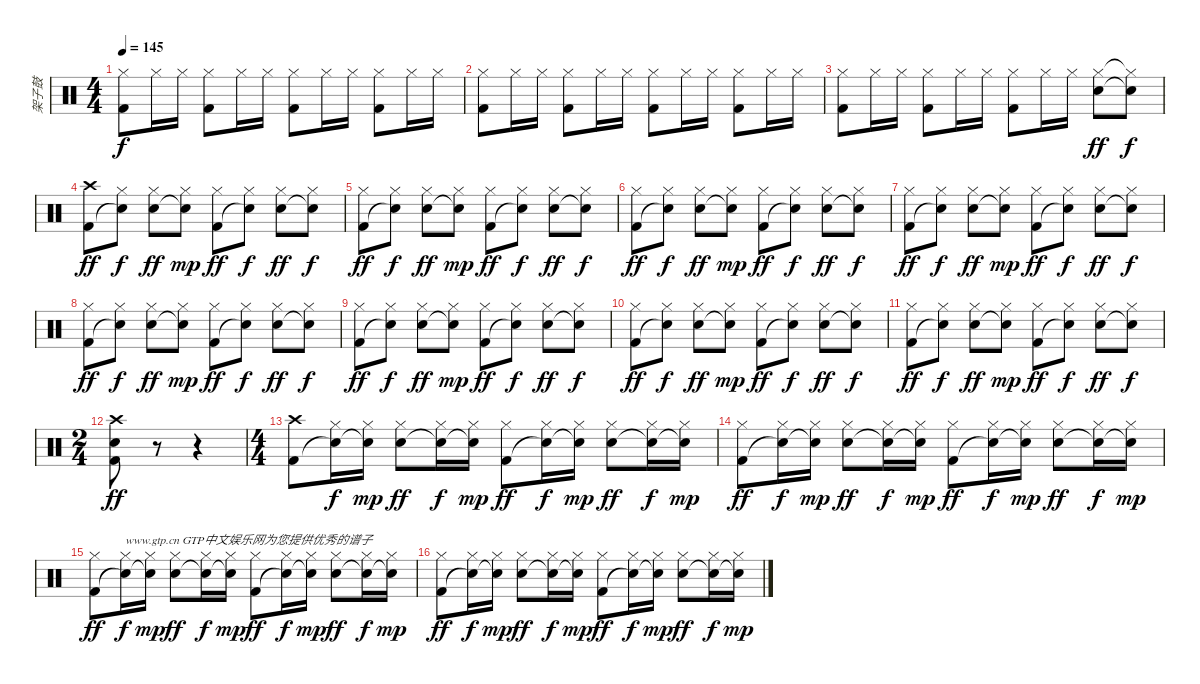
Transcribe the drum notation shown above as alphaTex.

\track ("架子鼓" "架子鼓") {instrument percussion}
\staff {score}
\articulation defaults
\ts (4 4)
\tempo 145
\clef neutral
\ks c
("Kick (hit) 2" "Hi-Hat (closed)").8{dy f} "Hi-Hat (closed)".16 "Hi-Hat (closed)".16 ("Kick (hit) 2" "Hi-Hat (closed)").8 "Hi-Hat (closed)".16 "Hi-Hat (closed)".16 ("Kick (hit) 2" "Hi-Hat (closed)").8 "Hi-Hat (closed)".16 "Hi-Hat (closed)".16 ("Kick (hit) 2" "Hi-Hat (closed)").8 "Hi-Hat (closed)".16 "Hi-Hat (closed)".16 |
("Kick (hit) 2" "Hi-Hat (closed)").8 "Hi-Hat (closed)".16 "Hi-Hat (closed)".16 ("Kick (hit) 2" "Hi-Hat (closed)").8 "Hi-Hat (closed)".16 "Hi-Hat (closed)".16 ("Kick (hit) 2" "Hi-Hat (closed)").8 "Hi-Hat (closed)".16 "Hi-Hat (closed)".16 ("Kick (hit) 2" "Hi-Hat (closed)").8 "Hi-Hat (closed)".16 "Hi-Hat (closed)".16 |
("Kick (hit) 2" "Hi-Hat (closed)").8 "Hi-Hat (closed)".16 "Hi-Hat (closed)".16 ("Kick (hit) 2" "Hi-Hat (closed)").8 "Hi-Hat (closed)".16 "Hi-Hat (closed)".16 ("Kick (hit) 2" "Hi-Hat (closed)").8 "Hi-Hat (closed)".16 "Hi-Hat (closed)".16 ("Hi-Hat (closed)" "Snare (hit) 2").8{dy ff} ("Hi-Hat (closed)"{t} "Snare (hit)"{t}).8{dy f} |
("Kick (hit) 2" "Crash high (hit)").8{dy ff} ("Snare (hit)"{t} "Hi-Hat (closed)").8{dy f} ("Snare (hit) 2" "Hi-Hat (closed)").8{dy ff} ("Snare (hit)"{t} "Hi-Hat (closed)").8{dy mp} ("Kick (hit) 2" "Hi-Hat (closed)").8{dy ff} ("Snare (hit)"{t} "Hi-Hat (closed)").8{dy f} ("Snare (hit) 2" "Hi-Hat (closed)").8{dy ff} ("Snare (hit)"{t} "Hi-Hat (closed)").8{dy f} |
("Kick (hit) 2" "Hi-Hat (closed)").8{dy ff} ("Snare (hit)"{t} "Hi-Hat (closed)").8{dy f} ("Snare (hit) 2" "Hi-Hat (closed)").8{dy ff} ("Snare (hit)"{t} "Hi-Hat (closed)").8{dy mp} ("Kick (hit) 2" "Hi-Hat (closed)").8{dy ff} ("Snare (hit)"{t} "Hi-Hat (closed)").8{dy f} ("Snare (hit) 2" "Hi-Hat (closed)").8{dy ff} ("Snare (hit)"{t} "Hi-Hat (closed)").8{dy f} |
("Kick (hit) 2" "Hi-Hat (closed)").8{dy ff} ("Snare (hit)"{t} "Hi-Hat (closed)").8{dy f} ("Snare (hit) 2" "Hi-Hat (closed)").8{dy ff} ("Snare (hit)"{t} "Hi-Hat (closed)").8{dy mp} ("Kick (hit) 2" "Hi-Hat (closed)").8{dy ff} ("Snare (hit)"{t} "Hi-Hat (closed)").8{dy f} ("Snare (hit) 2" "Hi-Hat (closed)").8{dy ff} ("Snare (hit)"{t} "Hi-Hat (closed)").8{dy f} |
("Kick (hit) 2" "Hi-Hat (closed)").8{dy ff} ("Snare (hit)"{t} "Hi-Hat (closed)").8{dy f} ("Snare (hit) 2" "Hi-Hat (closed)").8{dy ff} ("Snare (hit)"{t} "Hi-Hat (closed)").8{dy mp} ("Kick (hit) 2" "Hi-Hat (closed)").8{dy ff} ("Snare (hit)"{t} "Hi-Hat (closed)").8{dy f} ("Snare (hit) 2" "Hi-Hat (closed)").8{dy ff} ("Snare (hit)"{t} "Hi-Hat (closed)").8{dy f} |
("Kick (hit) 2" "Hi-Hat (closed)").8{dy ff} ("Snare (hit)"{t} "Hi-Hat (closed)").8{dy f} ("Snare (hit) 2" "Hi-Hat (closed)").8{dy ff} ("Snare (hit)"{t} "Hi-Hat (closed)").8{dy mp} ("Kick (hit) 2" "Hi-Hat (closed)").8{dy ff} ("Snare (hit)"{t} "Hi-Hat (closed)").8{dy f} ("Snare (hit) 2" "Hi-Hat (closed)").8{dy ff} ("Snare (hit)"{t} "Hi-Hat (closed)").8{dy f} |
("Kick (hit) 2" "Hi-Hat (closed)").8{dy ff} ("Snare (hit)"{t} "Hi-Hat (closed)").8{dy f} ("Snare (hit) 2" "Hi-Hat (closed)").8{dy ff} ("Snare (hit)"{t} "Hi-Hat (closed)").8{dy mp} ("Kick (hit) 2" "Hi-Hat (closed)").8{dy ff} ("Snare (hit)"{t} "Hi-Hat (closed)").8{dy f} ("Snare (hit) 2" "Hi-Hat (closed)").8{dy ff} ("Snare (hit)"{t} "Hi-Hat (closed)").8{dy f} |
("Kick (hit) 2" "Hi-Hat (closed)").8{dy ff} ("Snare (hit)"{t} "Hi-Hat (closed)").8{dy f} ("Snare (hit) 2" "Hi-Hat (closed)").8{dy ff} ("Snare (hit)"{t} "Hi-Hat (closed)").8{dy mp} ("Kick (hit) 2" "Hi-Hat (closed)").8{dy ff} ("Snare (hit)"{t} "Hi-Hat (closed)").8{dy f} ("Snare (hit) 2" "Hi-Hat (closed)").8{dy ff} ("Snare (hit)"{t} "Hi-Hat (closed)").8{dy f} |
("Kick (hit) 2" "Hi-Hat (closed)").8{dy ff} ("Snare (hit)"{t} "Hi-Hat (closed)").8{dy f} ("Snare (hit) 2" "Hi-Hat (closed)").8{dy ff} ("Snare (hit)"{t} "Hi-Hat (closed)").8{dy mp} ("Kick (hit) 2" "Hi-Hat (closed)").8{dy ff} ("Snare (hit)"{t} "Hi-Hat (closed)").8{dy f} ("Snare (hit) 2" "Hi-Hat (closed)").8{dy ff} ("Snare (hit)"{t} "Hi-Hat (closed)").8{dy f} |
\ts (2 4)
("Snare (hit) 2" "Kick (hit) 2" "Crash high (hit)").8{dy ff} r.8 r.4 |
\ts (4 4)
("Kick (hit) 2" "Crash high (hit)").8 ("Snare (hit)"{t} "Hi-Hat (closed)").16{dy f} ("Snare (hit)"{t} "Hi-Hat (closed)").16{dy mp} ("Snare (hit) 2" "Hi-Hat (closed)").8{dy ff} ("Snare (hit)"{t} "Hi-Hat (closed)").16{dy f} ("Snare (hit)"{t} "Hi-Hat (closed)").16{dy mp} ("Kick (hit) 2" "Hi-Hat (closed)").8{dy ff} ("Snare (hit)"{t} "Hi-Hat (closed)").16{dy f} ("Snare (hit)"{t} "Hi-Hat (closed)").16{dy mp} ("Snare (hit) 2" "Hi-Hat (closed)").8{dy ff} ("Snare (hit)"{t} "Hi-Hat (closed)").16{dy f} ("Snare (hit)"{t} "Hi-Hat (closed)").16{dy mp} |
("Kick (hit) 2" "Hi-Hat (closed)").8{dy ff} ("Snare (hit)"{t} "Hi-Hat (closed)").16{dy f} ("Snare (hit)"{t} "Hi-Hat (closed)").16{dy mp} ("Snare (hit) 2" "Hi-Hat (closed)").8{dy ff} ("Snare (hit)"{t} "Hi-Hat (closed)").16{dy f} ("Snare (hit)"{t} "Hi-Hat (closed)").16{dy mp} ("Kick (hit) 2" "Hi-Hat (closed)").8{dy ff} ("Snare (hit)"{t} "Hi-Hat (closed)").16{dy f} ("Snare (hit)"{t} "Hi-Hat (closed)").16{dy mp} ("Snare (hit) 2" "Hi-Hat (closed)").8{dy ff} ("Snare (hit)"{t} "Hi-Hat (closed)").16{dy f} ("Snare (hit)"{t} "Hi-Hat (closed)").16{dy mp} |
("Kick (hit) 2" "Hi-Hat (closed)").8{dy ff} ("Snare (hit)"{t} "Hi-Hat (closed)").16{txt "www.gtp.cn GTP中文娱乐网为您提供优秀的谱子" dy f} ("Snare (hit)"{t} "Hi-Hat (closed)").16{dy mp} ("Snare (hit) 2" "Hi-Hat (closed)").8{dy ff} ("Snare (hit)"{t} "Hi-Hat (closed)").16{dy f} ("Snare (hit)"{t} "Hi-Hat (closed)").16{dy mp} ("Kick (hit) 2" "Hi-Hat (closed)").8{dy ff} ("Snare (hit)"{t} "Hi-Hat (closed)").16{dy f} ("Snare (hit)"{t} "Hi-Hat (closed)").16{dy mp} ("Snare (hit) 2" "Hi-Hat (closed)").8{dy ff} ("Snare (hit)"{t} "Hi-Hat (closed)").16{dy f} ("Snare (hit)"{t} "Hi-Hat (closed)").16{dy mp} |
("Kick (hit) 2" "Hi-Hat (closed)").8{dy ff} ("Snare (hit)"{t} "Hi-Hat (closed)").16{dy f} ("Snare (hit)"{t} "Hi-Hat (closed)").16{dy mp} ("Snare (hit) 2" "Hi-Hat (closed)").8{dy ff} ("Snare (hit)"{t} "Hi-Hat (closed)").16{dy f} ("Snare (hit)"{t} "Hi-Hat (closed)").16{dy mp} ("Kick (hit) 2" "Hi-Hat (closed)").8{dy ff} ("Snare (hit)"{t} "Hi-Hat (closed)").16{dy f} ("Snare (hit)"{t} "Hi-Hat (closed)").16{dy mp} ("Snare (hit) 2" "Hi-Hat (closed)").8{dy ff} ("Snare (hit)"{t} "Hi-Hat (closed)").16{dy f} ("Snare (hit)"{t} "Hi-Hat (closed)").16{dy mp}
